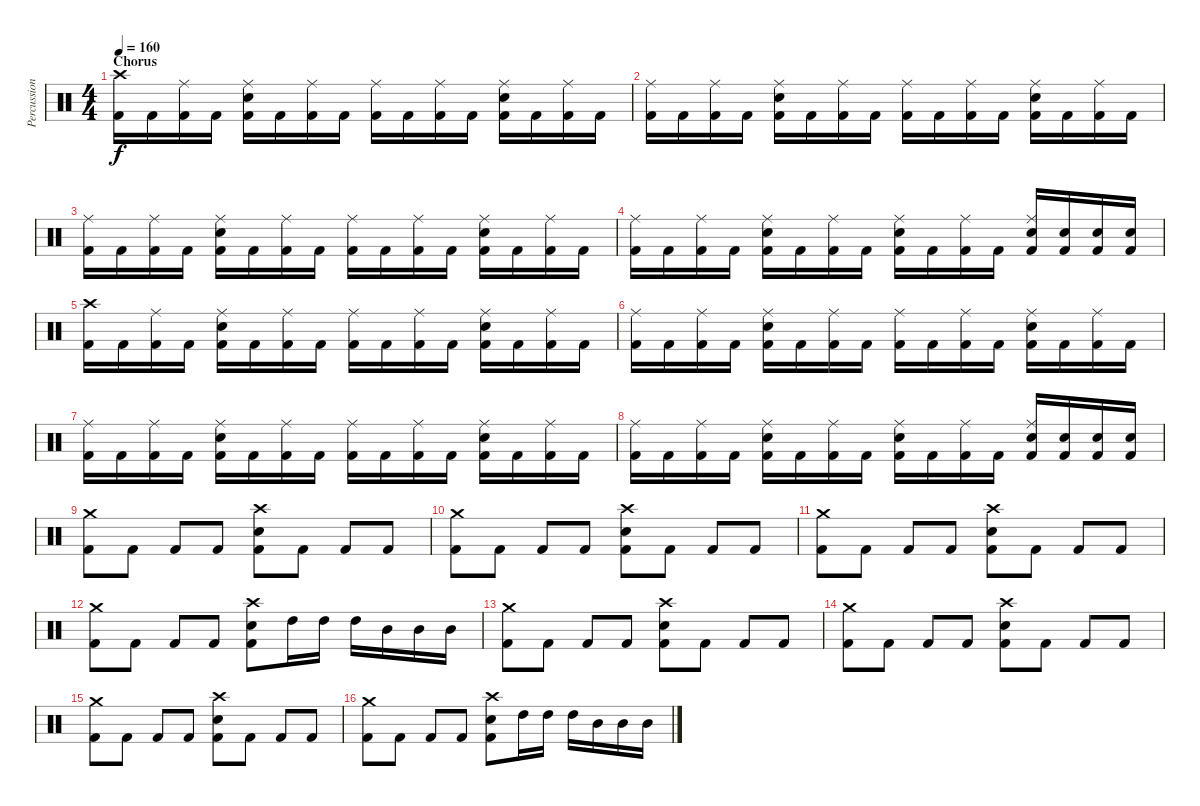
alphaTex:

\track ("Percussions" "Percussion") {instrument percussion}
\staff {score}
\articulation defaults
\ts (4 4)
\section ("" "Chorus")
\tempo 160
\clef neutral
\ks c
("Crash high (hit)" "Kick (hit) 2").16{dy f} "Kick (hit) 2".16 ("Ride (middle)" "Kick (hit) 2").16 "Kick (hit) 2".16 ("Ride (middle)" "Electric Snare (hit)" "Kick (hit) 2").16 "Kick (hit) 2".16 ("Ride (middle)" "Kick (hit) 2").16 "Kick (hit) 2".16 ("Ride (middle)" "Kick (hit) 2").16 "Kick (hit) 2".16 ("Ride (middle)" "Kick (hit) 2").16 "Kick (hit) 2".16 ("Ride (middle)" "Electric Snare (hit)" "Kick (hit) 2").16 "Kick (hit) 2".16 ("Ride (middle)" "Kick (hit) 2").16 "Kick (hit) 2".16 |
("Ride (middle)" "Kick (hit) 2").16 "Kick (hit) 2".16 ("Ride (middle)" "Kick (hit) 2").16 "Kick (hit) 2".16 ("Ride (middle)" "Electric Snare (hit)" "Kick (hit) 2").16 "Kick (hit) 2".16 ("Ride (middle)" "Kick (hit) 2").16 "Kick (hit) 2".16 ("Ride (middle)" "Kick (hit) 2").16 "Kick (hit) 2".16 ("Ride (middle)" "Kick (hit) 2").16 "Kick (hit) 2".16 ("Ride (middle)" "Electric Snare (hit)" "Kick (hit) 2").16 "Kick (hit) 2".16 ("Ride (middle)" "Kick (hit) 2").16 "Kick (hit) 2".16 |
("Ride (middle)" "Kick (hit) 2").16 "Kick (hit) 2".16 ("Ride (middle)" "Kick (hit) 2").16 "Kick (hit) 2".16 ("Ride (middle)" "Electric Snare (hit)" "Kick (hit) 2").16 "Kick (hit) 2".16 ("Ride (middle)" "Kick (hit) 2").16 "Kick (hit) 2".16 ("Ride (middle)" "Kick (hit) 2").16 "Kick (hit) 2".16 ("Ride (middle)" "Kick (hit) 2").16 "Kick (hit) 2".16 ("Ride (middle)" "Electric Snare (hit)" "Kick (hit) 2").16 "Kick (hit) 2".16 ("Ride (middle)" "Kick (hit) 2").16 "Kick (hit) 2".16 |
("Ride (middle)" "Kick (hit) 2").16 "Kick (hit) 2".16 ("Ride (middle)" "Kick (hit) 2").16 "Kick (hit) 2".16 ("Ride (middle)" "Electric Snare (hit)" "Kick (hit) 2").16 "Kick (hit) 2".16 ("Ride (middle)" "Kick (hit) 2").16 "Kick (hit) 2".16 ("Ride (middle)" "Electric Snare (hit)" "Kick (hit) 2").16 "Kick (hit) 2".16 ("Ride (middle)" "Kick (hit) 2").16 "Kick (hit) 2".16 ("Ride (middle)" "Electric Snare (hit)" "Kick (hit) 2").16 ("Electric Snare (hit)" "Kick (hit) 2").16 ("Electric Snare (hit)" "Kick (hit) 2").16 ("Electric Snare (hit)" "Kick (hit) 2").16 |
("Crash high (hit)" "Kick (hit) 2").16 "Kick (hit) 2".16 ("Ride (middle)" "Kick (hit) 2").16 "Kick (hit) 2".16 ("Ride (middle)" "Electric Snare (hit)" "Kick (hit) 2").16 "Kick (hit) 2".16 ("Ride (middle)" "Kick (hit) 2").16 "Kick (hit) 2".16 ("Ride (middle)" "Kick (hit) 2").16 "Kick (hit) 2".16 ("Ride (middle)" "Kick (hit) 2").16 "Kick (hit) 2".16 ("Ride (middle)" "Electric Snare (hit)" "Kick (hit) 2").16 "Kick (hit) 2".16 ("Ride (middle)" "Kick (hit) 2").16 "Kick (hit) 2".16 |
("Ride (middle)" "Kick (hit) 2").16 "Kick (hit) 2".16 ("Ride (middle)" "Kick (hit) 2").16 "Kick (hit) 2".16 ("Ride (middle)" "Electric Snare (hit)" "Kick (hit) 2").16 "Kick (hit) 2".16 ("Ride (middle)" "Kick (hit) 2").16 "Kick (hit) 2".16 ("Ride (middle)" "Kick (hit) 2").16 "Kick (hit) 2".16 ("Ride (middle)" "Kick (hit) 2").16 "Kick (hit) 2".16 ("Ride (middle)" "Electric Snare (hit)" "Kick (hit) 2").16 "Kick (hit) 2".16 ("Ride (middle)" "Kick (hit) 2").16 "Kick (hit) 2".16 |
("Ride (middle)" "Kick (hit) 2").16 "Kick (hit) 2".16 ("Ride (middle)" "Kick (hit) 2").16 "Kick (hit) 2".16 ("Ride (middle)" "Electric Snare (hit)" "Kick (hit) 2").16 "Kick (hit) 2".16 ("Ride (middle)" "Kick (hit) 2").16 "Kick (hit) 2".16 ("Ride (middle)" "Kick (hit) 2").16 "Kick (hit) 2".16 ("Ride (middle)" "Kick (hit) 2").16 "Kick (hit) 2".16 ("Ride (middle)" "Electric Snare (hit)" "Kick (hit) 2").16 "Kick (hit) 2".16 ("Ride (middle)" "Kick (hit) 2").16 "Kick (hit) 2".16 |
("Ride (middle)" "Kick (hit) 2").16 "Kick (hit) 2".16 ("Ride (middle)" "Kick (hit) 2").16 "Kick (hit) 2".16 ("Ride (middle)" "Electric Snare (hit)" "Kick (hit) 2").16 "Kick (hit) 2".16 ("Ride (middle)" "Kick (hit) 2").16 "Kick (hit) 2".16 ("Ride (middle)" "Electric Snare (hit)" "Kick (hit) 2").16 "Kick (hit) 2".16 ("Ride (middle)" "Kick (hit) 2").16 "Kick (hit) 2".16 ("Ride (middle)" "Electric Snare (hit)" "Kick (hit) 2").16 ("Electric Snare (hit)" "Kick (hit) 2").16 ("Electric Snare (hit)" "Kick (hit) 2").16 ("Electric Snare (hit)" "Kick (hit) 2").16 |
("Crash medium (hit)" "Kick (hit) 2").8 "Kick (hit) 2".8 "Kick (hit) 2".8 "Kick (hit) 2".8 ("Crash high (hit)" "Electric Snare (hit)" "Kick (hit) 2").8 "Kick (hit) 2".8 "Kick (hit) 2".8 "Kick (hit) 2".8 |
("Crash medium (hit)" "Kick (hit) 2").8 "Kick (hit) 2".8 "Kick (hit) 2".8 "Kick (hit) 2".8 ("Crash high (hit)" "Electric Snare (hit)" "Kick (hit) 2").8 "Kick (hit) 2".8 "Kick (hit) 2".8 "Kick (hit) 2".8 |
("Crash medium (hit)" "Kick (hit) 2").8 "Kick (hit) 2".8 "Kick (hit) 2".8 "Kick (hit) 2".8 ("Crash high (hit)" "Electric Snare (hit)" "Kick (hit) 2").8 "Kick (hit) 2".8 "Kick (hit) 2".8 "Kick (hit) 2".8 |
("Crash medium (hit)" "Kick (hit) 2").8 "Kick (hit) 2".8 "Kick (hit) 2".8 "Kick (hit) 2".8 ("Crash high (hit)" "Electric Snare (hit)" "Kick (hit) 2").8 "High Tom (hit)".16 "High Tom (hit)".16 "High Tom (hit)".16 "Mid Tom (hit)".16 "Mid Tom (hit)".16 "Mid Tom (hit)".16 |
("Crash medium (hit)" "Kick (hit) 2").8 "Kick (hit) 2".8 "Kick (hit) 2".8 "Kick (hit) 2".8 ("Crash high (hit)" "Electric Snare (hit)" "Kick (hit) 2").8 "Kick (hit) 2".8 "Kick (hit) 2".8 "Kick (hit) 2".8 |
("Crash medium (hit)" "Kick (hit) 2").8 "Kick (hit) 2".8 "Kick (hit) 2".8 "Kick (hit) 2".8 ("Crash high (hit)" "Electric Snare (hit)" "Kick (hit) 2").8 "Kick (hit) 2".8 "Kick (hit) 2".8 "Kick (hit) 2".8 |
("Crash medium (hit)" "Kick (hit) 2").8 "Kick (hit) 2".8 "Kick (hit) 2".8 "Kick (hit) 2".8 ("Crash high (hit)" "Electric Snare (hit)" "Kick (hit) 2").8 "Kick (hit) 2".8 "Kick (hit) 2".8 "Kick (hit) 2".8 |
("Crash medium (hit)" "Kick (hit) 2").8 "Kick (hit) 2".8 "Kick (hit) 2".8 "Kick (hit) 2".8 ("Crash high (hit)" "Electric Snare (hit)" "Kick (hit) 2").8 "High Tom (hit)".16 "High Tom (hit)".16 "High Tom (hit)".16 "Mid Tom (hit)".16 "Mid Tom (hit)".16 "Mid Tom (hit)".16
